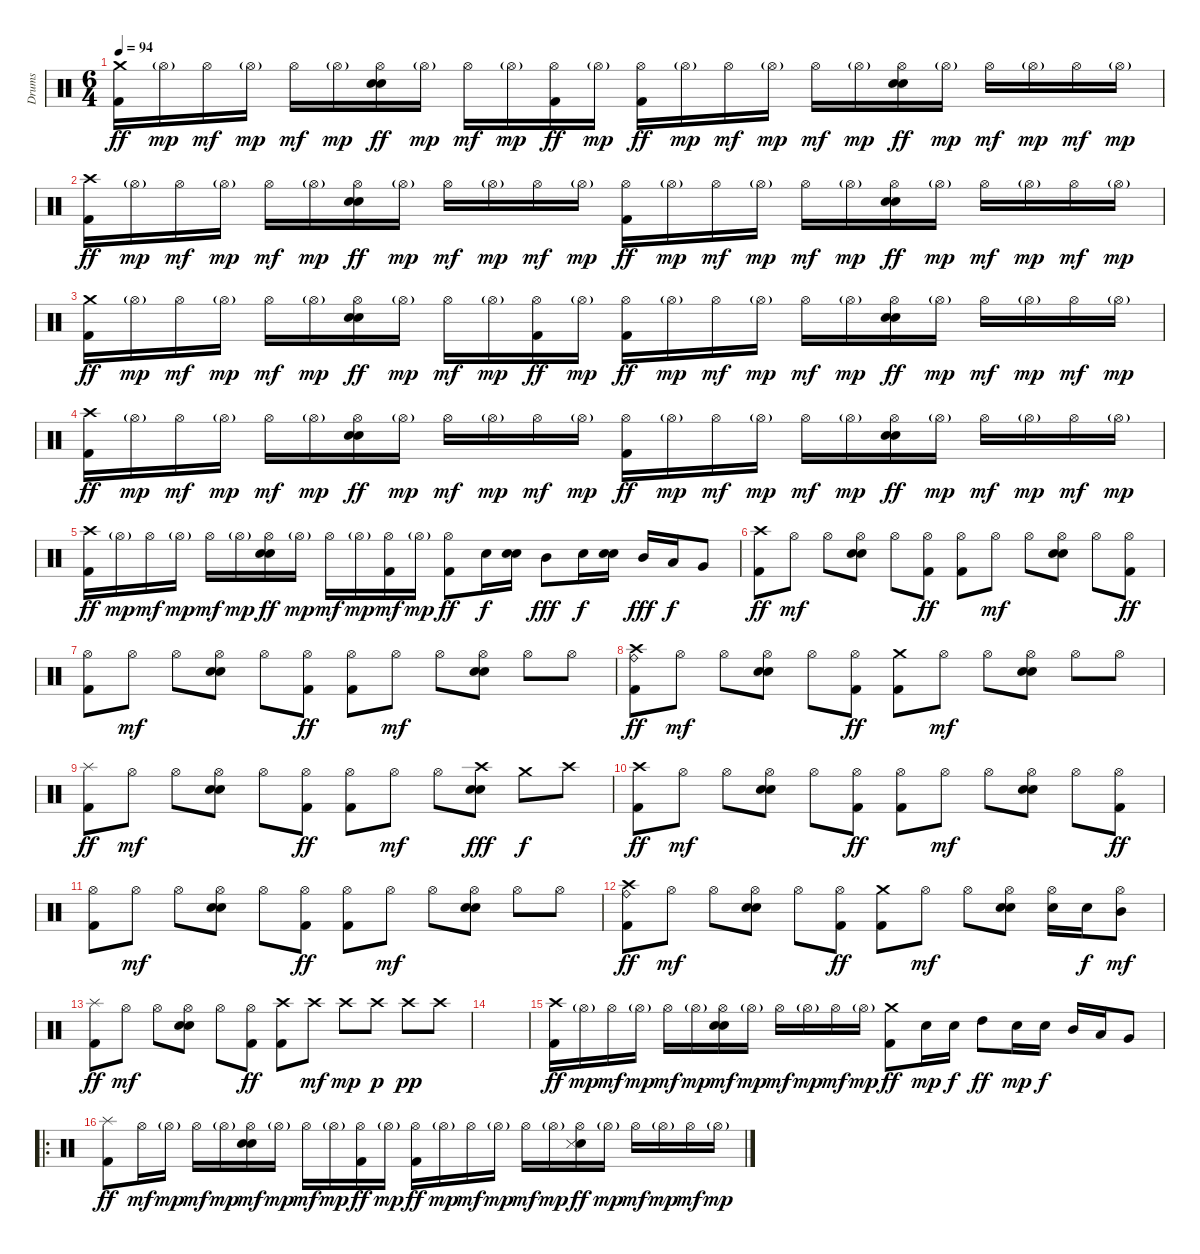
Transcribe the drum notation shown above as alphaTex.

\track ("Drums" "Drums") {instrument percussion}
\staff {score}
\articulation defaults
\ts (6 4)
\tempo 94
\clef neutral
\ks c
("Crash medium (hit)" "Kick (hit) 2").16{dy ff} "Hi-Hat (open)"{g}.16{dy mp} "Hi-Hat (open)".16{dy mf} "Hi-Hat (open)"{g}.16{dy mp} "Hi-Hat (open)".16{dy mf} "Hi-Hat (open)"{g}.16{dy mp} ("Hi-Hat (open)" "Electric Snare (hit)" "Metronome (bell)").16{dy ff} "Hi-Hat (open)"{g}.16{dy mp} "Hi-Hat (open)".16{dy mf} "Hi-Hat (open)"{g}.16{dy mp} ("Hi-Hat (open)" "Kick (hit) 2").16{dy ff} "Hi-Hat (open)"{g}.16{dy mp} ("Hi-Hat (open)" "Kick (hit) 2").16{dy ff} "Hi-Hat (open)"{g}.16{dy mp} "Hi-Hat (open)".16{dy mf} "Hi-Hat (open)"{g}.16{dy mp} "Hi-Hat (open)".16{dy mf} "Hi-Hat (open)"{g}.16{dy mp} ("Hi-Hat (open)" "Electric Snare (hit)" "Metronome (bell)").16{dy ff} "Hi-Hat (open)"{g}.16{dy mp} "Hi-Hat (open)".16{dy mf} "Hi-Hat (open)"{g}.16{dy mp} "Hi-Hat (open)".16{dy mf} "Hi-Hat (open)"{g}.16{dy mp} |
("Crash high (hit)" "Kick (hit) 2").16{dy ff} "Hi-Hat (open)"{g}.16{dy mp} "Hi-Hat (open)".16{dy mf} "Hi-Hat (open)"{g}.16{dy mp} "Hi-Hat (open)".16{dy mf} "Hi-Hat (open)"{g}.16{dy mp} ("Hi-Hat (open)" "Electric Snare (hit)" "Metronome (bell)").16{dy ff} "Hi-Hat (open)"{g}.16{dy mp} "Hi-Hat (open)".16{dy mf} "Hi-Hat (open)"{g}.16{dy mp} "Hi-Hat (open)".16{dy mf} "Hi-Hat (open)"{g}.16{dy mp} ("Hi-Hat (open)" "Kick (hit) 2").16{dy ff} "Hi-Hat (open)"{g}.16{dy mp} "Hi-Hat (open)".16{dy mf} "Hi-Hat (open)"{g}.16{dy mp} "Hi-Hat (open)".16{dy mf} "Hi-Hat (open)"{g}.16{dy mp} ("Hi-Hat (open)" "Electric Snare (hit)" "Metronome (bell)").16{dy ff} "Hi-Hat (open)"{g}.16{dy mp} "Hi-Hat (open)".16{dy mf} "Hi-Hat (open)"{g}.16{dy mp} "Hi-Hat (open)".16{dy mf} "Hi-Hat (open)"{g}.16{dy mp} |
("Crash medium (hit)" "Kick (hit) 2").16{dy ff} "Hi-Hat (open)"{g}.16{dy mp} "Hi-Hat (open)".16{dy mf} "Hi-Hat (open)"{g}.16{dy mp} "Hi-Hat (open)".16{dy mf} "Hi-Hat (open)"{g}.16{dy mp} ("Hi-Hat (open)" "Electric Snare (hit)" "Metronome (bell)").16{dy ff} "Hi-Hat (open)"{g}.16{dy mp} "Hi-Hat (open)".16{dy mf} "Hi-Hat (open)"{g}.16{dy mp} ("Hi-Hat (open)" "Kick (hit) 2").16{dy ff} "Hi-Hat (open)"{g}.16{dy mp} ("Hi-Hat (open)" "Kick (hit) 2").16{dy ff} "Hi-Hat (open)"{g}.16{dy mp} "Hi-Hat (open)".16{dy mf} "Hi-Hat (open)"{g}.16{dy mp} "Hi-Hat (open)".16{dy mf} "Hi-Hat (open)"{g}.16{dy mp} ("Hi-Hat (open)" "Electric Snare (hit)" "Metronome (bell)").16{dy ff} "Hi-Hat (open)"{g}.16{dy mp} "Hi-Hat (open)".16{dy mf} "Hi-Hat (open)"{g}.16{dy mp} "Hi-Hat (open)".16{dy mf} "Hi-Hat (open)"{g}.16{dy mp} |
("Crash high (hit)" "Kick (hit) 2").16{dy ff} "Hi-Hat (open)"{g}.16{dy mp} "Hi-Hat (open)".16{dy mf} "Hi-Hat (open)"{g}.16{dy mp} "Hi-Hat (open)".16{dy mf} "Hi-Hat (open)"{g}.16{dy mp} ("Hi-Hat (open)" "Electric Snare (hit)" "Metronome (bell)").16{dy ff} "Hi-Hat (open)"{g}.16{dy mp} "Hi-Hat (open)".16{dy mf} "Hi-Hat (open)"{g}.16{dy mp} "Hi-Hat (open)".16{dy mf} "Hi-Hat (open)"{g}.16{dy mp} ("Hi-Hat (open)" "Kick (hit) 2").16{dy ff} "Hi-Hat (open)"{g}.16{dy mp} "Hi-Hat (open)".16{dy mf} "Hi-Hat (open)"{g}.16{dy mp} "Hi-Hat (open)".16{dy mf} "Hi-Hat (open)"{g}.16{dy mp} ("Hi-Hat (open)" "Electric Snare (hit)" "Metronome (bell)").16{dy ff} "Hi-Hat (open)"{g}.16{dy mp} "Hi-Hat (open)".16{dy mf} "Hi-Hat (open)"{g}.16{dy mp} "Hi-Hat (open)".16{dy mf} "Hi-Hat (open)"{g}.16{dy mp} |
("Crash high (hit)" "Kick (hit) 2").16{dy ff} "Hi-Hat (open)"{g}.16{dy mp} "Hi-Hat (open)".16{dy mf} "Hi-Hat (open)"{g}.16{dy mp} "Hi-Hat (open)".16{dy mf} "Hi-Hat (open)"{g}.16{dy mp} ("Hi-Hat (open)" "Electric Snare (hit)" "Metronome (bell)").16{dy ff} "Hi-Hat (open)"{g}.16{dy mp} "Hi-Hat (open)".16{dy mf} "Hi-Hat (open)"{g}.16{dy mp} ("Hi-Hat (open)" "Kick (hit) 2").16{dy mf} "Hi-Hat (open)"{g}.16{dy mp} ("Hi-Hat (open)" "Kick (hit) 2").8{dy ff} "Electric Snare (hit)".16{dy f} ("Electric Snare (hit)" "Metronome (bell)").16 "Mid Tom (hit)".8{dy fff} "Electric Snare (hit)".16{dy f} ("Electric Snare (hit)" "Metronome (bell)").16 "Mid Tom (hit)".16{dy fff} "Low Tom (hit)".16{dy f} "Very Low Tom (hit)".8 |
("Crash high (hit)" "Kick (hit) 2").8{dy ff} "Hi-Hat (open)".8{dy mf} "Hi-Hat (open)".8 ("Hi-Hat (open)" "Electric Snare (hit)" "Metronome (bell)").8 "Hi-Hat (open)".8 ("Hi-Hat (open)" "Kick (hit) 2").8{dy ff} ("Hi-Hat (open)" "Kick (hit) 2").8 "Hi-Hat (open)".8{dy mf} "Hi-Hat (open)".8 ("Hi-Hat (open)" "Electric Snare (hit)" "Metronome (bell)").8 "Hi-Hat (open)".8 ("Hi-Hat (open)" "Kick (hit) 2").8{dy ff} |
("Hi-Hat (open)" "Kick (hit) 2").8 "Hi-Hat (open)".8{dy mf} "Hi-Hat (open)".8 ("Hi-Hat (open)" "Electric Snare (hit)" "Metronome (bell)").8 "Hi-Hat (open)".8 ("Hi-Hat (open)" "Kick (hit) 2").8{dy ff} ("Hi-Hat (open)" "Kick (hit) 2").8 "Hi-Hat (open)".8{dy mf} "Hi-Hat (open)".8 ("Hi-Hat (open)" "Electric Snare (hit)" "Metronome (bell)").8 "Hi-Hat (open)".8 "Hi-Hat (open)".8 |
("Crash high (hit)" "Ride (bell)" "Kick (hit) 2").8{dy ff} "Hi-Hat (open)".8{dy mf} "Hi-Hat (open)".8 ("Hi-Hat (open)" "Electric Snare (hit)" "Metronome (bell)").8 "Hi-Hat (open)".8 ("Hi-Hat (open)" "Kick (hit) 2").8{dy ff} ("Crash medium (hit)" "Kick (hit) 2").8 "Hi-Hat (open)".8{dy mf} "Hi-Hat (open)".8 ("Hi-Hat (open)" "Electric Snare (hit)" "Metronome (bell)").8 "Hi-Hat (open)".8 "Hi-Hat (open)".8 |
("Splash (hit)" "Kick (hit) 2").8{dy ff} "Hi-Hat (open)".8{dy mf} "Hi-Hat (open)".8 ("Hi-Hat (open)" "Electric Snare (hit)" "Metronome (bell)").8 "Hi-Hat (open)".8 ("Hi-Hat (open)" "Kick (hit) 2").8{dy ff} ("Hi-Hat (open)" "Kick (hit) 2").8 "Hi-Hat (open)".8{dy mf} "Hi-Hat (open)".8 ("Crash high (hit)" "Electric Snare (hit)" "Metronome (bell)").8{dy fff} "Crash medium (hit)".8{dy f} "Crash high (hit)".8 |
("Crash high (hit)" "Kick (hit) 2").8{dy ff} "Hi-Hat (open)".8{dy mf} "Hi-Hat (open)".8 ("Hi-Hat (open)" "Electric Snare (hit)" "Metronome (bell)").8 "Hi-Hat (open)".8 ("Hi-Hat (open)" "Kick (hit) 2").8{dy ff} ("Hi-Hat (open)" "Kick (hit) 2").8 "Hi-Hat (open)".8{dy mf} "Hi-Hat (open)".8 ("Hi-Hat (open)" "Electric Snare (hit)" "Metronome (bell)").8 "Hi-Hat (open)".8 ("Hi-Hat (open)" "Kick (hit) 2").8{dy ff} |
("Hi-Hat (open)" "Kick (hit) 2").8 "Hi-Hat (open)".8{dy mf} "Hi-Hat (open)".8 ("Hi-Hat (open)" "Electric Snare (hit)" "Metronome (bell)").8 "Hi-Hat (open)".8 ("Hi-Hat (open)" "Kick (hit) 2").8{dy ff} ("Hi-Hat (open)" "Kick (hit) 2").8 "Hi-Hat (open)".8{dy mf} "Hi-Hat (open)".8 ("Hi-Hat (open)" "Electric Snare (hit)" "Metronome (bell)").8 "Hi-Hat (open)".8 "Hi-Hat (open)".8 |
("Crash high (hit)" "Ride (bell)" "Kick (hit) 2").8{dy ff} "Hi-Hat (open)".8{dy mf} "Hi-Hat (open)".8 ("Hi-Hat (open)" "Electric Snare (hit)" "Metronome (bell)").8 "Hi-Hat (open)".8 ("Hi-Hat (open)" "Kick (hit) 2").8{dy ff} ("Crash medium (hit)" "Kick (hit) 2").8 "Hi-Hat (open)".8{dy mf} "Hi-Hat (open)".8 ("Hi-Hat (open)" "Electric Snare (hit)" "Metronome (bell)").8 ("Hi-Hat (open)" "Electric Snare (hit)").16 "Electric Snare (hit)".16{dy f} ("Hi-Hat (open)" "Mid Tom (hit)").8{dy mf} |
("Splash (hit)" "Kick (hit) 2").8{dy ff} "Hi-Hat (open)".8{dy mf} "Hi-Hat (open)".8 ("Hi-Hat (open)" "Electric Snare (hit)" "Metronome (bell)").8 "Hi-Hat (open)".8 ("Hi-Hat (open)" "Kick (hit) 2").8{dy ff} ("Crash high (hit)" "Kick (hit) 2").8 "Crash high (hit)".8{dy mf} "Crash high (hit)".8{dy mp} "Crash high (hit)".8{dy p} "Crash high (hit)".8{dy pp} "Crash high (hit)".8 |
|
("Crash high (hit)" "Kick (hit) 2").16{dy ff} "Hi-Hat (open)"{g}.16{dy mp} "Hi-Hat (open)".16{dy mf} "Hi-Hat (open)"{g}.16{dy mp} "Hi-Hat (open)".16{dy mf} "Hi-Hat (open)"{g}.16{dy mp} ("Hi-Hat (open)" "Electric Snare (hit)" "Metronome (bell)").16{dy mf} "Hi-Hat (open)"{g}.16{dy mp} "Hi-Hat (open)".16{dy mf} "Hi-Hat (open)"{g}.16{dy mp} "Hi-Hat (open)".16{dy mf} "Hi-Hat (open)"{g}.16{dy mp} ("Crash medium (hit)" "Kick (hit) 2").8{dy ff} "Electric Snare (hit)".16{dy mp} "Electric Snare (hit)".16{dy f} "High Tom (hit)".8{dy ff} "Electric Snare (hit)".16{dy mp} "Electric Snare (hit)".16{dy f} "Mid Tom (hit)".16 "Low Tom (hit)".16 "Very Low Tom (hit)".8 |
\ro
("Splash (hit)" "Kick (hit) 2").8{dy ff} "Hi-Hat (open)".16{dy mf} "Hi-Hat (open)"{g}.16{dy mp} "Hi-Hat (open)".16{dy mf} "Hi-Hat (open)"{g}.16{dy mp} ("Hi-Hat (open)" "Electric Snare (hit)" "Metronome (bell)").16{dy mf} "Hi-Hat (open)"{g}.16{dy mp} "Hi-Hat (open)".16{dy mf} "Hi-Hat (open)"{g}.16{dy mp} ("Hi-Hat (open)" "Kick (hit) 2").16{dy ff} "Hi-Hat (open)"{g}.16{dy mp} ("Hi-Hat (open)" "Kick (hit) 2").16{dy ff} "Hi-Hat (open)"{g}.16{dy mp} "Hi-Hat (open)".16{dy mf} "Hi-Hat (open)"{g}.16{dy mp} "Hi-Hat (open)".16{dy mf} "Hi-Hat (open)"{g}.16{dy mp} ("Hi-Hat (open)" "Electric Snare (hit)" "Metronome (hit)").16{dy ff} "Hi-Hat (open)"{g}.16{dy mp} "Hi-Hat (open)".16{dy mf} "Hi-Hat (open)"{g}.16{dy mp} "Hi-Hat (open)".16{dy mf} "Hi-Hat (open)"{g}.16{dy mp}
